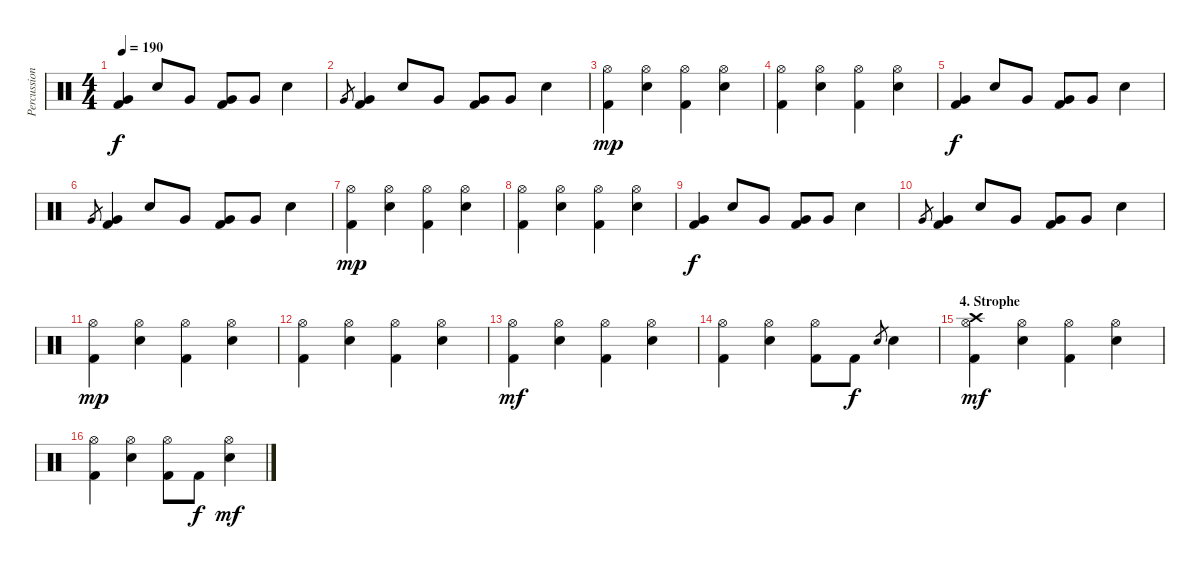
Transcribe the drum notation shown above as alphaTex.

\track ("Percussion" "Percussion") {instrument percussion}
\staff {score}
\articulation defaults
\ts (4 4)
\tempo 190
\clef neutral
\ks c
("Very Low Tom (hit)" "Kick (hit) 2").4{dy f} "Electric Snare (hit)".8 "Very Low Tom (hit)".8 ("Very Low Tom (hit)" "Kick (hit) 2").8 "Very Low Tom (hit)".8 "Electric Snare (hit)".4 |
"Very Low Tom (hit)".8{gr} ("Very Low Tom (hit)" "Kick (hit) 2").4 "Electric Snare (hit)".8 "Very Low Tom (hit)".8 ("Very Low Tom (hit)" "Kick (hit) 2").8 "Very Low Tom (hit)".8 "Electric Snare (hit)".4 |
("Hi-Hat (open)" "Kick (hit) 2").4{dy mp} ("Hi-Hat (open)" "Electric Snare (hit)").4 ("Hi-Hat (open)" "Kick (hit) 2").4 ("Hi-Hat (open)" "Electric Snare (hit)").4 |
("Hi-Hat (open)" "Kick (hit) 2").4 ("Hi-Hat (open)" "Electric Snare (hit)").4 ("Hi-Hat (open)" "Kick (hit) 2").4 ("Hi-Hat (open)" "Electric Snare (hit)").4 |
("Very Low Tom (hit)" "Kick (hit) 2").4{dy f} "Electric Snare (hit)".8 "Very Low Tom (hit)".8 ("Very Low Tom (hit)" "Kick (hit) 2").8 "Very Low Tom (hit)".8 "Electric Snare (hit)".4 |
"Very Low Tom (hit)".8{gr} ("Very Low Tom (hit)" "Kick (hit) 2").4 "Electric Snare (hit)".8 "Very Low Tom (hit)".8 ("Very Low Tom (hit)" "Kick (hit) 2").8 "Very Low Tom (hit)".8 "Electric Snare (hit)".4 |
("Hi-Hat (open)" "Kick (hit) 2").4{dy mp} ("Hi-Hat (open)" "Electric Snare (hit)").4 ("Hi-Hat (open)" "Kick (hit) 2").4 ("Hi-Hat (open)" "Electric Snare (hit)").4 |
("Hi-Hat (open)" "Kick (hit) 2").4 ("Hi-Hat (open)" "Electric Snare (hit)").4 ("Hi-Hat (open)" "Kick (hit) 2").4 ("Hi-Hat (open)" "Electric Snare (hit)").4 |
("Very Low Tom (hit)" "Kick (hit) 2").4{dy f} "Electric Snare (hit)".8 "Very Low Tom (hit)".8 ("Very Low Tom (hit)" "Kick (hit) 2").8 "Very Low Tom (hit)".8 "Electric Snare (hit)".4 |
"Very Low Tom (hit)".8{gr} ("Very Low Tom (hit)" "Kick (hit) 2").4 "Electric Snare (hit)".8 "Very Low Tom (hit)".8 ("Very Low Tom (hit)" "Kick (hit) 2").8 "Very Low Tom (hit)".8 "Electric Snare (hit)".4 |
("Hi-Hat (open)" "Kick (hit) 2").4{dy mp} ("Hi-Hat (open)" "Electric Snare (hit)").4 ("Hi-Hat (open)" "Kick (hit) 2").4 ("Hi-Hat (open)" "Electric Snare (hit)").4 |
("Hi-Hat (open)" "Kick (hit) 2").4 ("Hi-Hat (open)" "Electric Snare (hit)").4 ("Hi-Hat (open)" "Kick (hit) 2").4 ("Hi-Hat (open)" "Electric Snare (hit)").4 |
("Hi-Hat (open)" "Kick (hit) 2").4{dy mf} ("Hi-Hat (open)" "Electric Snare (hit)").4 ("Hi-Hat (open)" "Kick (hit) 2").4 ("Hi-Hat (open)" "Electric Snare (hit)").4 |
("Hi-Hat (open)" "Kick (hit) 2").4 ("Hi-Hat (open)" "Electric Snare (hit)").4 ("Hi-Hat (open)" "Kick (hit) 2").8 "Kick (hit) 2".8{dy f} "Electric Snare (hit)".8{gr} "Electric Snare (hit)".4 |
\section ("" "4. Strophe")
("Crash high (hit)" "Hi-Hat (open)" "Kick (hit) 2").4{dy mf} ("Hi-Hat (open)" "Electric Snare (hit)").4 ("Hi-Hat (open)" "Kick (hit) 2").4 ("Hi-Hat (open)" "Electric Snare (hit)").4 |
("Hi-Hat (open)" "Kick (hit) 2").4 ("Hi-Hat (open)" "Electric Snare (hit)").4 ("Hi-Hat (open)" "Kick (hit) 2").8 "Kick (hit) 2".8{dy f} ("Hi-Hat (open)" "Electric Snare (hit)").4{dy mf}
